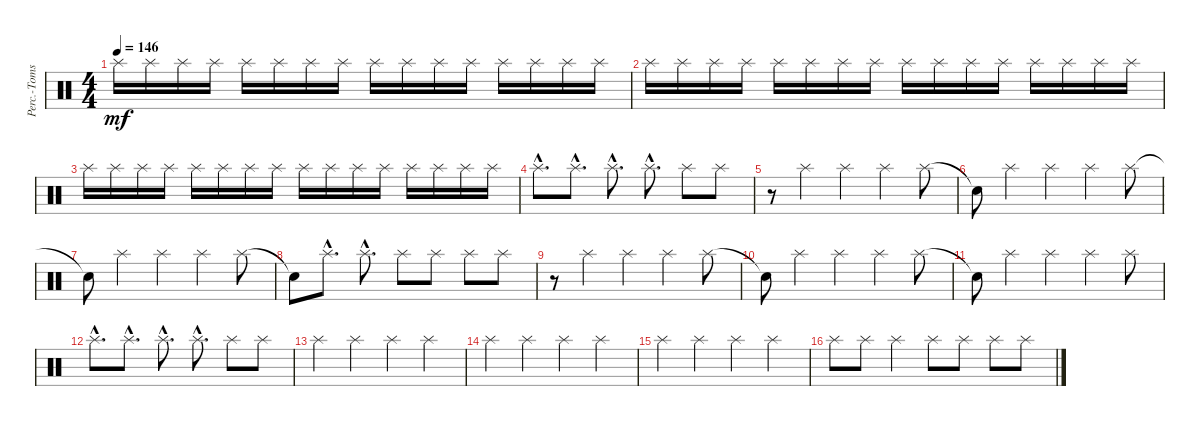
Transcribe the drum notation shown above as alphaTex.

\track ("Perc.-Toms/Cym.2" "Perc.-Toms") {instrument percussion}
\staff {score}
\articulation defaults
\ts (4 4)
\tempo 146
\clef neutral
\ks c "Splash (hit)".16{dy mf} "Splash (hit)".16 "Splash (hit)".16 "Splash (hit)".16 "Splash (hit)".16 "Splash (hit)".16 "Splash (hit)".16 "Splash (hit)".16 "Splash (hit)".16 "Splash (hit)".16 "Splash (hit)".16 "Splash (hit)".16 "Splash (hit)".16 "Splash (hit)".16 "Splash (hit)".16 "Splash (hit)".16
|
"Splash (hit)".16 "Splash (hit)".16 "Splash (hit)".16 "Splash (hit)".16 "Splash (hit)".16 "Splash (hit)".16 "Splash (hit)".16 "Splash (hit)".16 "Splash (hit)".16 "Splash (hit)".16 "Splash (hit)".16 "Splash (hit)".16 "Splash (hit)".16 "Splash (hit)".16 "Splash (hit)".16 "Splash (hit)".16 |
"Splash (hit)".16 "Splash (hit)".16 "Splash (hit)".16 "Splash (hit)".16 "Splash (hit)".16 "Splash (hit)".16 "Splash (hit)".16 "Splash (hit)".16 "Splash (hit)".16 "Splash (hit)".16 "Splash (hit)".16 "Splash (hit)".16 "Splash (hit)".16 "Splash (hit)".16 "Splash (hit)".16 "Splash (hit)".16 |
"Splash (hit)"{hac}.8{d} "Splash (hit)"{hac}.8{d} "Splash (hit)"{hac}.8{d} "Splash (hit)"{hac}.8{d} "Splash (hit)".8 "Splash (hit)".8 |
r.8 "Splash (hit)".4 "Splash (hit)".4 "Splash (hit)".4 "Splash (hit)".8 |
"Snare (hit)"{t}.8 "Splash (hit)".4 "Splash (hit)".4 "Splash (hit)".4 "Splash (hit)".8 |
"Snare (hit)"{t}.8 "Splash (hit)".4 "Splash (hit)".4 "Splash (hit)".4 "Splash (hit)".8 |
"Snare (hit)"{t}.8 "Splash (hit)"{hac}.8{d} "Splash (hit)"{hac}.8{d} "Splash (hit)".8 "Splash (hit)".8 "Splash (hit)".8 "Splash (hit)".8 |
r.8 "Splash (hit)".4 "Splash (hit)".4 "Splash (hit)".4 "Splash (hit)".8 |
"Snare (hit)"{t}.8 "Splash (hit)".4 "Splash (hit)".4 "Splash (hit)".4 "Splash (hit)".8 |
"Snare (hit)"{t}.8 "Splash (hit)".4 "Splash (hit)".4 "Splash (hit)".4 "Splash (hit)".8 |
"Splash (hit)"{hac}.8{d} "Splash (hit)"{hac}.8{d} "Splash (hit)"{hac}.8{d} "Splash (hit)"{hac}.8{d} "Splash (hit)".8 "Splash (hit)".8 |
"Splash (hit)".4 "Splash (hit)".4 "Splash (hit)".4 "Splash (hit)".4 |
"Splash (hit)".4 "Splash (hit)".4 "Splash (hit)".4 "Splash (hit)".4 |
"Splash (hit)".4 "Splash (hit)".4 "Splash (hit)".4 "Splash (hit)".4 |
"Splash (hit)".8 "Splash (hit)".8 "Splash (hit)".4 "Splash (hit)".8 "Splash (hit)".8 "Splash (hit)".8 "Splash (hit)".8
